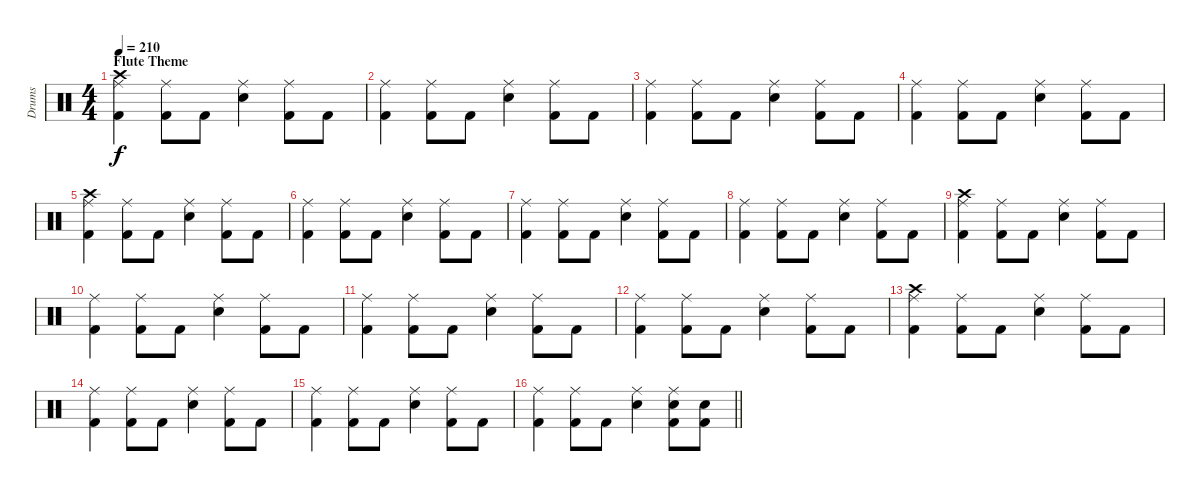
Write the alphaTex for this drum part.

\track ("Drums" "Drums") {instrument percussion}
\staff {score}
\articulation defaults
\ts (4 4)
\section ("" "Flute Theme")
\tempo 210
\clef neutral
\ks c
("Crash high (hit)" "Ride (middle)" "Kick (hit) 2").4{dy f} ("Ride (middle)" "Kick (hit) 2").8 "Kick (hit) 2".8 ("Ride (middle)" "Snare (hit) 2").4 ("Ride (middle)" "Kick (hit) 2").8 "Kick (hit) 2".8 |
("Ride (middle)" "Kick (hit) 2").4 ("Ride (middle)" "Kick (hit) 2").8 "Kick (hit) 2".8 ("Ride (middle)" "Snare (hit) 2").4 ("Ride (middle)" "Kick (hit) 2").8 "Kick (hit) 2".8 |
("Ride (middle)" "Kick (hit) 2").4 ("Ride (middle)" "Kick (hit) 2").8 "Kick (hit) 2".8 ("Ride (middle)" "Snare (hit) 2").4 ("Ride (middle)" "Kick (hit) 2").8 "Kick (hit) 2".8 |
("Ride (middle)" "Kick (hit) 2").4 ("Ride (middle)" "Kick (hit) 2").8 "Kick (hit) 2".8 ("Ride (middle)" "Snare (hit) 2").4 ("Ride (middle)" "Kick (hit) 2").8 "Kick (hit) 2".8 |
("Crash high (hit)" "Ride (middle)" "Kick (hit) 2").4 ("Ride (middle)" "Kick (hit) 2").8 "Kick (hit) 2".8 ("Ride (middle)" "Snare (hit) 2").4 ("Ride (middle)" "Kick (hit) 2").8 "Kick (hit) 2".8 |
("Ride (middle)" "Kick (hit) 2").4 ("Ride (middle)" "Kick (hit) 2").8 "Kick (hit) 2".8 ("Ride (middle)" "Snare (hit) 2").4 ("Ride (middle)" "Kick (hit) 2").8 "Kick (hit) 2".8 |
("Ride (middle)" "Kick (hit) 2").4 ("Ride (middle)" "Kick (hit) 2").8 "Kick (hit) 2".8 ("Ride (middle)" "Snare (hit) 2").4 ("Ride (middle)" "Kick (hit) 2").8 "Kick (hit) 2".8 |
("Ride (middle)" "Kick (hit) 2").4 ("Ride (middle)" "Kick (hit) 2").8 "Kick (hit) 2".8 ("Ride (middle)" "Snare (hit) 2").4 ("Ride (middle)" "Kick (hit) 2").8 "Kick (hit) 2".8 |
("Crash high (hit)" "Ride (middle)" "Kick (hit) 2").4 ("Ride (middle)" "Kick (hit) 2").8 "Kick (hit) 2".8 ("Ride (middle)" "Snare (hit) 2").4 ("Ride (middle)" "Kick (hit) 2").8 "Kick (hit) 2".8 |
("Ride (middle)" "Kick (hit) 2").4 ("Ride (middle)" "Kick (hit) 2").8 "Kick (hit) 2".8 ("Ride (middle)" "Snare (hit) 2").4 ("Ride (middle)" "Kick (hit) 2").8 "Kick (hit) 2".8 |
("Ride (middle)" "Kick (hit) 2").4 ("Ride (middle)" "Kick (hit) 2").8 "Kick (hit) 2".8 ("Ride (middle)" "Snare (hit) 2").4 ("Ride (middle)" "Kick (hit) 2").8 "Kick (hit) 2".8 |
("Ride (middle)" "Kick (hit) 2").4 ("Ride (middle)" "Kick (hit) 2").8 "Kick (hit) 2".8 ("Ride (middle)" "Snare (hit) 2").4 ("Ride (middle)" "Kick (hit) 2").8 "Kick (hit) 2".8 |
("Crash high (hit)" "Ride (middle)" "Kick (hit) 2").4 ("Ride (middle)" "Kick (hit) 2").8 "Kick (hit) 2".8 ("Ride (middle)" "Snare (hit) 2").4 ("Ride (middle)" "Kick (hit) 2").8 "Kick (hit) 2".8 |
("Ride (middle)" "Kick (hit) 2").4 ("Ride (middle)" "Kick (hit) 2").8 "Kick (hit) 2".8 ("Ride (middle)" "Snare (hit) 2").4 ("Ride (middle)" "Kick (hit) 2").8 "Kick (hit) 2".8 |
("Ride (middle)" "Kick (hit) 2").4 ("Ride (middle)" "Kick (hit) 2").8 "Kick (hit) 2".8 ("Ride (middle)" "Snare (hit) 2").4 ("Ride (middle)" "Kick (hit) 2").8 "Kick (hit) 2".8 |
\barLineRight lightlight
("Ride (middle)" "Kick (hit) 2").4 ("Ride (middle)" "Kick (hit) 2").8 "Kick (hit) 2".8 ("Ride (middle)" "Snare (hit) 2").4 ("Ride (middle)" "Snare (hit) 2" "Kick (hit) 2").8 ("Snare (hit) 2" "Kick (hit) 2").8
